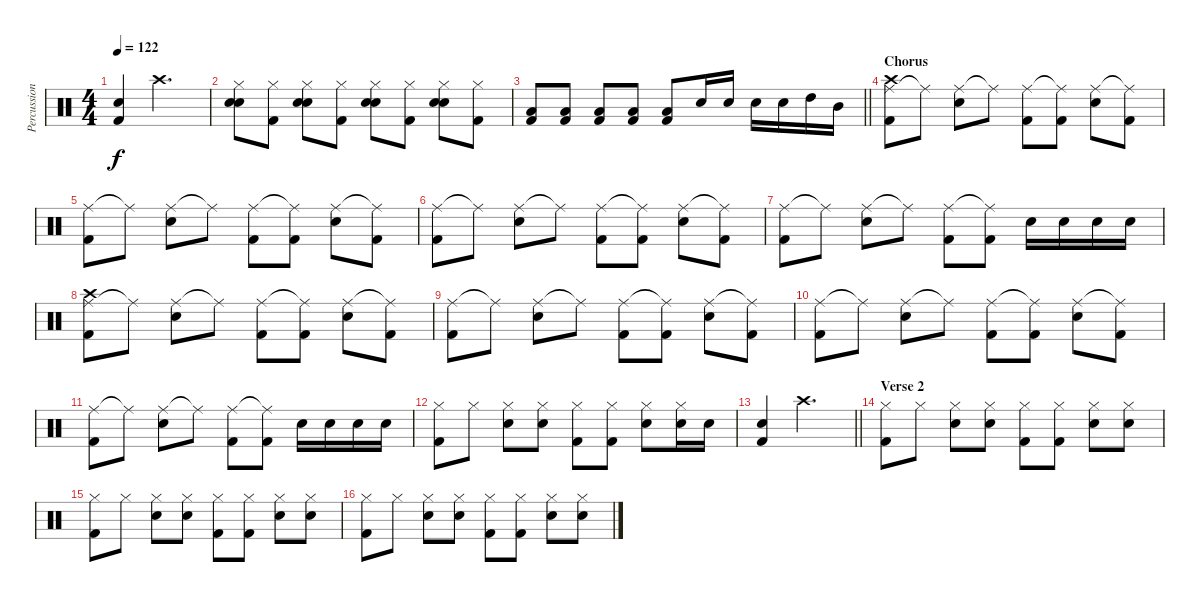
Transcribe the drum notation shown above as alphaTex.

\track ("Percussion" "Percussion") {instrument percussion}
\staff {score}
\articulation defaults
\ts (4 4)
\tempo 122
\clef neutral
\ks c
("Snare (hit) 2" "Kick (hit) 2").4{dy f} "Crash high (hit)".2{d} |
("Hi-Hat (closed)" "Snare (hit) 2" "Snare (hit) 2").8 ("Hi-Hat (closed)" "Kick (hit) 2").8 ("Hi-Hat (closed)" "Snare (hit) 2" "Snare (hit) 2").8 ("Hi-Hat (closed)" "Kick (hit) 2").8 ("Hi-Hat (closed)" "Snare (hit) 2" "Snare (hit) 2").8 ("Hi-Hat (closed)" "Kick (hit) 2").8 ("Hi-Hat (closed)" "Snare (hit) 2" "Snare (hit) 2").8 ("Hi-Hat (closed)" "Kick (hit) 2").8 |
\barLineRight lightlight
("Low Floor Tom (hit)" "Kick (hit) 2").8 ("Low Floor Tom (hit)" "Kick (hit) 2").8 ("Low Floor Tom (hit)" "Kick (hit) 2").8 ("Low Floor Tom (hit)" "Kick (hit) 2").8 ("Low Floor Tom (hit)" "Kick (hit) 2").8 "Snare (hit) 2".16 "Snare (hit) 2".16 "Snare (hit) 2".16 "Snare (hit) 2".16 "High Tom (hit)".16 "Mid Tom (hit)".16 |
\section ("" "Chorus")
("Ride (middle)" "Crash high (hit)" "Kick (hit) 2").8 "Ride (middle)"{t}.8 ("Ride (middle)" "Snare (hit) 2").8 "Ride (middle)"{t}.8 ("Ride (middle)" "Kick (hit) 2").8 ("Ride (middle)"{t} "Kick (hit) 2").8 ("Ride (middle)" "Snare (hit) 2").8 ("Ride (middle)"{t} "Kick (hit) 2").8 |
("Ride (middle)" "Kick (hit) 2").8 "Ride (middle)"{t}.8 ("Ride (middle)" "Snare (hit) 2").8 "Ride (middle)"{t}.8 ("Ride (middle)" "Kick (hit) 2").8 ("Ride (middle)"{t} "Kick (hit) 2").8 ("Ride (middle)" "Snare (hit) 2").8 ("Ride (middle)"{t} "Kick (hit) 2").8 |
("Ride (middle)" "Kick (hit) 2").8 "Ride (middle)"{t}.8 ("Ride (middle)" "Snare (hit) 2").8 "Ride (middle)"{t}.8 ("Ride (middle)" "Kick (hit) 2").8 ("Ride (middle)"{t} "Kick (hit) 2").8 ("Ride (middle)" "Snare (hit) 2").8 ("Ride (middle)"{t} "Kick (hit) 2").8 |
("Ride (middle)" "Kick (hit) 2").8 "Ride (middle)"{t}.8 ("Ride (middle)" "Snare (hit) 2").8 "Ride (middle)"{t}.8 ("Ride (middle)" "Kick (hit) 2").8 ("Ride (middle)"{t} "Kick (hit) 2").8 "Snare (hit) 2".16 "Snare (hit) 2".16 "Snare (hit) 2".16 "Snare (hit) 2".16 |
("Ride (middle)" "Crash high (hit)" "Kick (hit) 2").8 "Ride (middle)"{t}.8 ("Ride (middle)" "Snare (hit) 2").8 "Ride (middle)"{t}.8 ("Ride (middle)" "Kick (hit) 2").8 ("Ride (middle)"{t} "Kick (hit) 2").8 ("Ride (middle)" "Snare (hit) 2").8 ("Ride (middle)"{t} "Kick (hit) 2").8 |
("Ride (middle)" "Kick (hit) 2").8 "Ride (middle)"{t}.8 ("Ride (middle)" "Snare (hit) 2").8 "Ride (middle)"{t}.8 ("Ride (middle)" "Kick (hit) 2").8 ("Ride (middle)"{t} "Kick (hit) 2").8 ("Ride (middle)" "Snare (hit) 2").8 ("Ride (middle)"{t} "Kick (hit) 2").8 |
("Ride (middle)" "Kick (hit) 2").8 "Ride (middle)"{t}.8 ("Ride (middle)" "Snare (hit) 2").8 "Ride (middle)"{t}.8 ("Ride (middle)" "Kick (hit) 2").8 ("Ride (middle)"{t} "Kick (hit) 2").8 ("Ride (middle)" "Snare (hit) 2").8 ("Ride (middle)"{t} "Kick (hit) 2").8 |
("Ride (middle)" "Kick (hit) 2").8 "Ride (middle)"{t}.8 ("Ride (middle)" "Snare (hit) 2").8 "Ride (middle)"{t}.8 ("Ride (middle)" "Kick (hit) 2").8 ("Ride (middle)"{t} "Kick (hit) 2").8 "Snare (hit) 2".16 "Snare (hit) 2".16 "Snare (hit) 2".16 "Snare (hit) 2".16 |
("Hi-Hat (closed)" "Kick (hit) 2").8 "Hi-Hat (closed)".8 ("Hi-Hat (closed)" "Snare (hit) 2").8 ("Hi-Hat (closed)" "Snare (hit) 2").8 ("Hi-Hat (closed)" "Kick (hit) 2").8 ("Hi-Hat (closed)" "Kick (hit) 2").8 ("Hi-Hat (closed)" "Snare (hit) 2").8 ("Hi-Hat (closed)" "Snare (hit) 2").16 "Snare (hit) 2".16 |
\barLineRight lightlight
("Snare (hit) 2" "Kick (hit) 2").4 "Crash high (hit)".2{d} |
\section ("" "Verse 2")
("Hi-Hat (closed)" "Kick (hit) 2").8 "Hi-Hat (closed)".8 ("Hi-Hat (closed)" "Snare (hit) 2").8 ("Hi-Hat (closed)" "Snare (hit) 2").8 ("Hi-Hat (closed)" "Kick (hit) 2").8 ("Hi-Hat (closed)" "Kick (hit) 2").8 ("Hi-Hat (closed)" "Snare (hit) 2").8 ("Hi-Hat (closed)" "Snare (hit) 2").8 |
("Hi-Hat (closed)" "Kick (hit) 2").8 "Hi-Hat (closed)".8 ("Hi-Hat (closed)" "Snare (hit) 2").8 ("Hi-Hat (closed)" "Snare (hit) 2").8 ("Hi-Hat (closed)" "Kick (hit) 2").8 ("Hi-Hat (closed)" "Kick (hit) 2").8 ("Hi-Hat (closed)" "Snare (hit) 2").8 ("Hi-Hat (closed)" "Snare (hit) 2").8 |
("Hi-Hat (closed)" "Kick (hit) 2").8 "Hi-Hat (closed)".8 ("Hi-Hat (closed)" "Snare (hit) 2").8 ("Hi-Hat (closed)" "Snare (hit) 2").8 ("Hi-Hat (closed)" "Kick (hit) 2").8 ("Hi-Hat (closed)" "Kick (hit) 2").8 ("Hi-Hat (closed)" "Snare (hit) 2").8 ("Hi-Hat (closed)" "Snare (hit) 2").8
